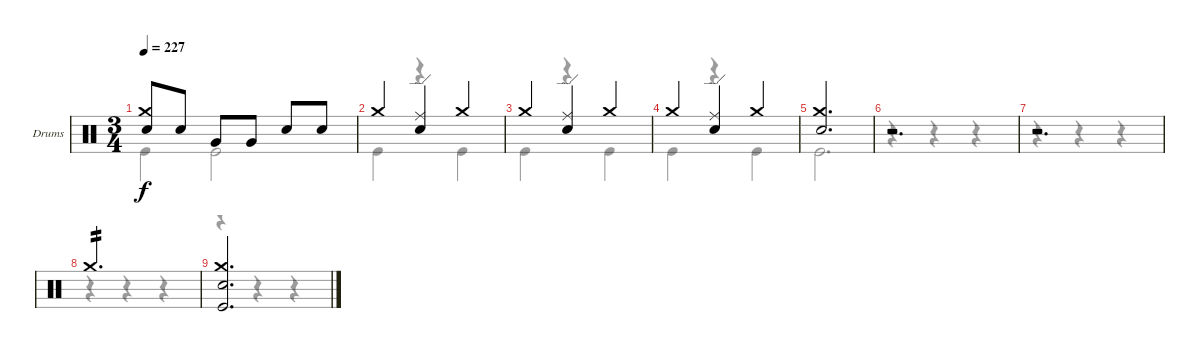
\bracketExtendMode groupsimilarinstruments
\firstSystemTrackNameOrientation horizontal
\otherSystemsTrackNameOrientation horizontal
\track ("Drumkit" "Drums") {instrument percussion}
\staff {score}
\articulation defaults
\voice
\ts (3 4)
\tempo 227
\clef neutral
\ks c
("Crash medium (hit)" "Snare (hit) 2").8{dy f} "Snare (hit) 2".8 "Very Low Tom (hit)".8 "Very Low Tom (hit)".8 "Snare (hit) 2".8 "Snare (hit) 2".8 |
"Crash medium (hit)".4 ("Ride (edge)" "Snare (hit) 2").4 "Crash medium (hit)".4 |
"Crash medium (hit)".4 ("Ride (edge)" "Snare (hit) 2").4 "Crash medium (hit)".4 |
"Crash medium (hit)".4 ("Ride (edge)" "Snare (hit) 2").4 "Crash medium (hit)".4 |
("Crash medium (hit)" "Snare (hit) 2").2{d} |
r.2{d} |
r.2{d} |
"Crash medium (hit)".2{d tp 2} |
("Crash medium (hit)" "Snare (hit) 2" "Kick (hit)").2{d}
\voice
\clef neutral
\ottava regular
\simile none
\ks c "Kick (hit)".4{dy f} "Kick (hit)".2
|
"Kick (hit)".4 r.4 "Kick (hit)".4 |
"Kick (hit)".4 r.4 "Kick (hit)".4 |
"Kick (hit)".4 r.4 "Kick (hit)".4 |
"Kick (hit)".2{d} |
r.4 r.4 r.4 |
r.4 r.4 r.4 |
r.4 r.4 r.4 |
r.4 r.4 r.4
